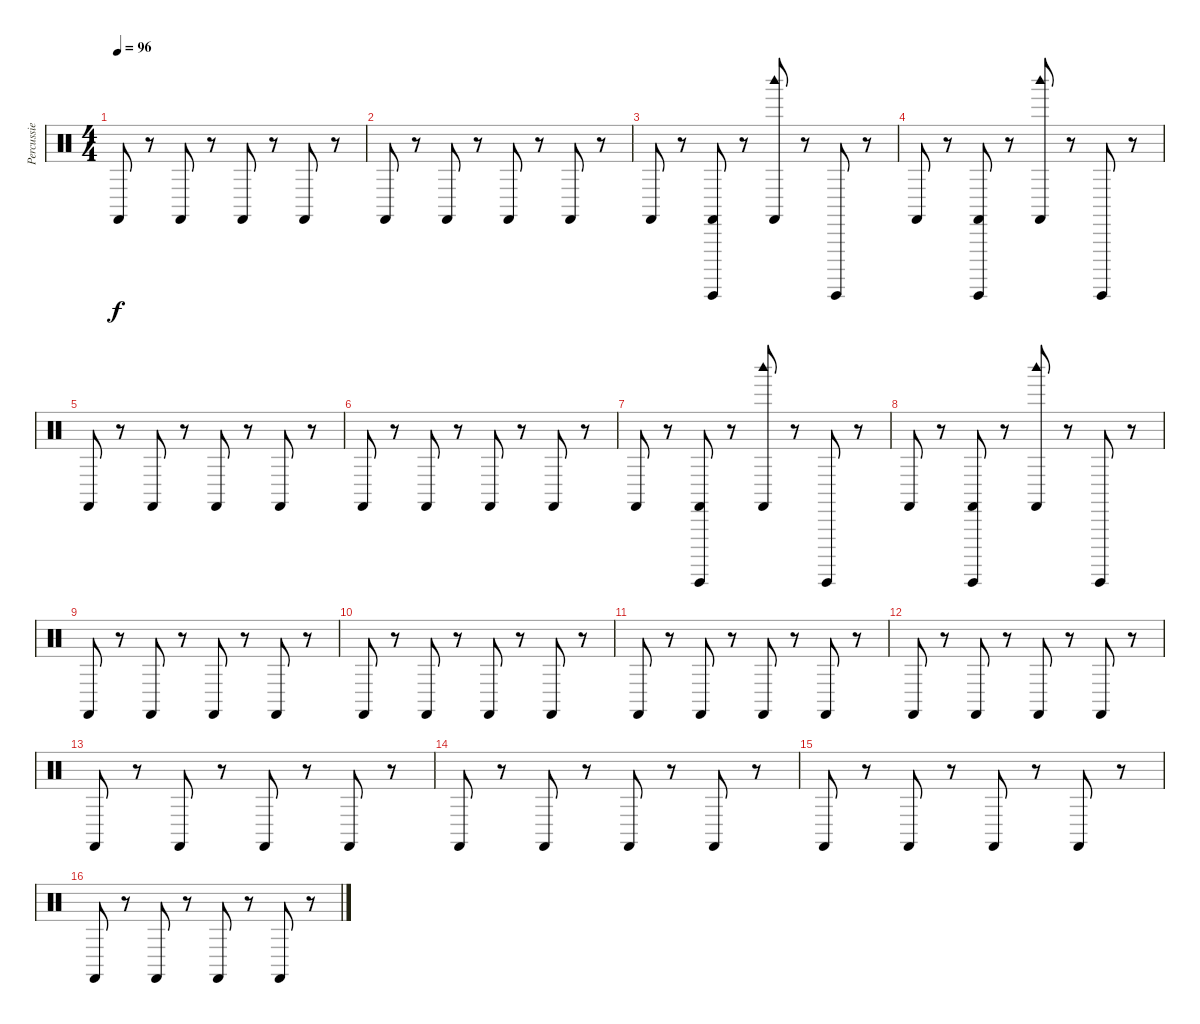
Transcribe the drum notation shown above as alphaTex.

\track ("Percussie" "Percussie") {instrument percussion}
\staff {score}
\articulation defaults
\ts (4 4)
\tempo 96
\clef neutral
\ks c "Castanets (hit)".8{dy f}
r.8 "Castanets (hit)".8 r.8 "Castanets (hit)".8 r.8 "Castanets (hit)".8 r.8 |
"Castanets (hit)".8 r.8 "Castanets (hit)".8 r.8 "Castanets (hit)".8 r.8 "Castanets (hit)".8 r.8 |
"Castanets (hit)".8 r.8 ("Guiro (hit)" "Castanets (hit)").8 r.8 ("Woodblock high (hit)" "Castanets (hit)").8 r.8 "Guiro (hit)".8 r.8 |
"Castanets (hit)".8 r.8 ("Guiro (hit)" "Castanets (hit)").8 r.8 ("Woodblock high (hit)" "Castanets (hit)").8 r.8 "Guiro (hit)".8 r.8 |
"Castanets (hit)".8 r.8 "Castanets (hit)".8 r.8 "Castanets (hit)".8 r.8 "Castanets (hit)".8 r.8 |
"Castanets (hit)".8 r.8 "Castanets (hit)".8 r.8 "Castanets (hit)".8 r.8 "Castanets (hit)".8 r.8 |
"Castanets (hit)".8 r.8 ("Guiro (hit)" "Castanets (hit)").8 r.8 ("Woodblock high (hit)" "Castanets (hit)").8 r.8 "Guiro (hit)".8 r.8 |
"Castanets (hit)".8 r.8 ("Guiro (hit)" "Castanets (hit)").8 r.8 ("Woodblock high (hit)" "Castanets (hit)").8 r.8 "Guiro (hit)".8 r.8 |
"Castanets (hit)".8 r.8 "Castanets (hit)".8 r.8 "Castanets (hit)".8 r.8 "Castanets (hit)".8 r.8 |
"Castanets (hit)".8 r.8 "Castanets (hit)".8 r.8 "Castanets (hit)".8 r.8 "Castanets (hit)".8 r.8 |
"Castanets (hit)".8 r.8 "Castanets (hit)".8 r.8 "Castanets (hit)".8 r.8 "Castanets (hit)".8 r.8 |
"Castanets (hit)".8 r.8 "Castanets (hit)".8 r.8 "Castanets (hit)".8 r.8 "Castanets (hit)".8 r.8 |
"Castanets (hit)".8 r.8 "Castanets (hit)".8 r.8 "Castanets (hit)".8 r.8 "Castanets (hit)".8 r.8 |
"Castanets (hit)".8 r.8 "Castanets (hit)".8 r.8 "Castanets (hit)".8 r.8 "Castanets (hit)".8 r.8 |
"Castanets (hit)".8 r.8 "Castanets (hit)".8 r.8 "Castanets (hit)".8 r.8 "Castanets (hit)".8 r.8 |
"Castanets (hit)".8 r.8 "Castanets (hit)".8 r.8 "Castanets (hit)".8 r.8 "Castanets (hit)".8 r.8
